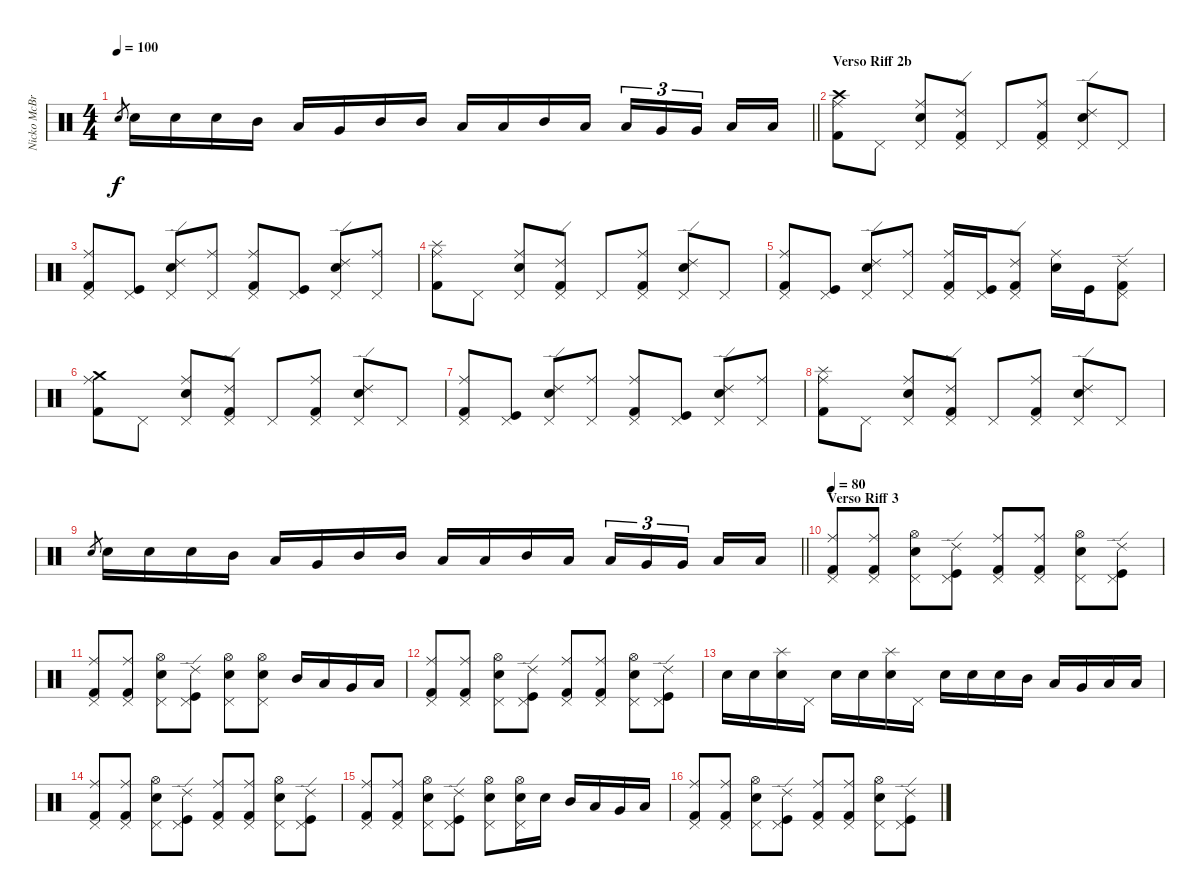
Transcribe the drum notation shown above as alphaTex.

\track ("Nicko McBrain" "Nicko McBr") {instrument percussion}
\staff {score}
\articulation defaults
\ts (4 4)
\tempo 100
\clef neutral
\barLineRight lightlight
\ks c "Snare (hit) 2".8{gr dy f} "Snare (hit) 2".16 "Snare (hit) 2".16 "Snare (hit) 2".16 "Mid Tom (hit)".16 "Low Tom (hit)".16 "Very Low Tom (hit)".16 "Mid Tom (hit)".16 "Mid Tom (hit)".16 "Low Tom (hit)".16 "Low Tom (hit)".16 "Mid Tom (hit)".16 "Low Tom (hit)".16 "Low Tom (hit)".16{tu (3 2)} "Very Low Tom (hit)".16{tu (3 2)} "Very Low Tom (hit)".16{tu (3 2) beam splitsecondary} "Low Floor Tom (hit)".16 "Low Floor Tom (hit)".16
|
\section ("" "Verso Riff 2b")
("Kick (hit) 2" "Ride (middle)" "Crash high (hit)").8 "Pedal Hi-Hat (hit)".8 ("Snare (hit) 2" "Pedal Hi-Hat (hit)" "Ride (middle)").8 ("Kick (hit) 2" "Pedal Hi-Hat (hit)" "Ride (edge) 2").8 "Pedal Hi-Hat (hit)".8 ("Kick (hit) 2" "Pedal Hi-Hat (hit)" "Ride (middle)").8 ("Snare (hit) 2" "Pedal Hi-Hat (hit)" "Ride (edge) 2").8 "Pedal Hi-Hat (hit)".8 |
("Kick (hit) 2" "Pedal Hi-Hat (hit)" "Ride (middle)").8 ("Kick (hit)" "Pedal Hi-Hat (hit)").8 ("Snare (hit) 2" "Pedal Hi-Hat (hit)" "Ride (edge) 2").8 ("Pedal Hi-Hat (hit)" "Ride (middle)").8 ("Kick (hit) 2" "Pedal Hi-Hat (hit)" "Ride (middle)").8 ("Kick (hit)" "Pedal Hi-Hat (hit)").8 ("Snare (hit) 2" "Pedal Hi-Hat (hit)" "Ride (edge) 2").8 ("Pedal Hi-Hat (hit)" "Ride (middle)").8 |
("Kick (hit) 2" "Ride (middle)" "Splash (hit)").8 "Pedal Hi-Hat (hit)".8 ("Snare (hit) 2" "Pedal Hi-Hat (hit)" "Ride (middle)").8 ("Kick (hit) 2" "Pedal Hi-Hat (hit)" "Ride (edge) 2").8 "Pedal Hi-Hat (hit)".8 ("Kick (hit) 2" "Pedal Hi-Hat (hit)" "Ride (middle)").8 ("Snare (hit) 2" "Pedal Hi-Hat (hit)" "Ride (edge) 2").8 "Pedal Hi-Hat (hit)".8 |
("Kick (hit) 2" "Pedal Hi-Hat (hit)" "Ride (middle)").8 ("Kick (hit)" "Pedal Hi-Hat (hit)").8 ("Snare (hit) 2" "Pedal Hi-Hat (hit)" "Ride (edge) 2").8 ("Pedal Hi-Hat (hit)" "Ride (middle)").8 ("Kick (hit) 2" "Pedal Hi-Hat (hit)" "Ride (middle)").16 ("Kick (hit)" "Pedal Hi-Hat (hit)").16 ("Kick (hit) 2" "Pedal Hi-Hat (hit)" "Ride (edge) 2").8 ("Snare (hit) 2" "Ride (middle)").16 "Kick (hit)".16 ("Kick (hit) 2" "Pedal Hi-Hat (hit)" "Ride (edge) 2").8 |
("Kick (hit) 2" "Ride (middle)" "Crash medium (hit)").8 "Pedal Hi-Hat (hit)".8 ("Snare (hit) 2" "Pedal Hi-Hat (hit)" "Ride (middle)").8 ("Kick (hit) 2" "Pedal Hi-Hat (hit)" "Ride (edge) 2").8 "Pedal Hi-Hat (hit)".8 ("Kick (hit) 2" "Pedal Hi-Hat (hit)" "Ride (middle)").8 ("Snare (hit) 2" "Pedal Hi-Hat (hit)" "Ride (edge) 2").8 "Pedal Hi-Hat (hit)".8 |
("Kick (hit) 2" "Pedal Hi-Hat (hit)" "Ride (middle)").8 ("Kick (hit)" "Pedal Hi-Hat (hit)").8 ("Snare (hit) 2" "Pedal Hi-Hat (hit)" "Ride (edge) 2").8 ("Pedal Hi-Hat (hit)" "Ride (middle)").8 ("Kick (hit) 2" "Pedal Hi-Hat (hit)" "Ride (middle)").8 ("Kick (hit)" "Pedal Hi-Hat (hit)").8 ("Snare (hit) 2" "Pedal Hi-Hat (hit)" "Ride (edge) 2").8 ("Pedal Hi-Hat (hit)" "Ride (middle)").8 |
("Kick (hit) 2" "Ride (middle)" "Splash (hit)").8 "Pedal Hi-Hat (hit)".8 ("Snare (hit) 2" "Pedal Hi-Hat (hit)" "Ride (middle)").8 ("Kick (hit) 2" "Pedal Hi-Hat (hit)" "Ride (edge) 2").8 "Pedal Hi-Hat (hit)".8 ("Kick (hit) 2" "Pedal Hi-Hat (hit)" "Ride (middle)").8 ("Snare (hit) 2" "Pedal Hi-Hat (hit)" "Ride (edge) 2").8 "Pedal Hi-Hat (hit)".8 |
\barLineRight lightlight "Snare (hit) 2".8{gr} "Snare (hit) 2".16 "Snare (hit) 2".16 "Snare (hit) 2".16 "Mid Tom (hit)".16 "Low Tom (hit)".16 "Very Low Tom (hit)".16 "Mid Tom (hit)".16 "Mid Tom (hit)".16 "Low Tom (hit)".16 "Low Tom (hit)".16 "Mid Tom (hit)".16 "Low Tom (hit)".16 "Low Tom (hit)".16{tu (3 2)} "Very Low Tom (hit)".16{tu (3 2)} "Very Low Tom (hit)".16{tu (3 2) beam splitsecondary} "Low Floor Tom (hit)".16 "Low Floor Tom (hit)".16
|
\section ("" "Verso Riff 3")
\tempo 80
("Kick (hit) 2" "Pedal Hi-Hat (hit)" "Ride (middle)").8 ("Kick (hit) 2" "Pedal Hi-Hat (hit)" "Ride (middle)").8 ("Snare (hit) 2" "Pedal Hi-Hat (hit)" "Hi-Hat (open)").8 ("Kick (hit)" "Pedal Hi-Hat (hit)" "Ride (edge) 2").8 ("Kick (hit) 2" "Pedal Hi-Hat (hit)" "Ride (middle)").8 ("Kick (hit) 2" "Pedal Hi-Hat (hit)" "Ride (middle)").8 ("Snare (hit) 2" "Pedal Hi-Hat (hit)" "Hi-Hat (open)").8 ("Kick (hit)" "Pedal Hi-Hat (hit)" "Ride (edge) 2").8 |
("Kick (hit) 2" "Pedal Hi-Hat (hit)" "Ride (middle)").8 ("Kick (hit) 2" "Pedal Hi-Hat (hit)" "Ride (middle)").8 ("Snare (hit) 2" "Pedal Hi-Hat (hit)" "Hi-Hat (open)").8 ("Kick (hit)" "Pedal Hi-Hat (hit)" "Ride (edge) 2").8 ("Snare (hit) 2" "Pedal Hi-Hat (hit)" "Hi-Hat (open)").8 ("Snare (hit) 2" "Pedal Hi-Hat (hit)" "Hi-Hat (open)").8 "Mid Tom (hit)".16 "Low Tom (hit)".16 "Very Low Tom (hit)".16 "Low Floor Tom (hit)".16 |
("Kick (hit) 2" "Pedal Hi-Hat (hit)" "Ride (middle)").8 ("Kick (hit) 2" "Pedal Hi-Hat (hit)" "Ride (middle)").8 ("Snare (hit) 2" "Pedal Hi-Hat (hit)" "Hi-Hat (open)").8 ("Kick (hit)" "Pedal Hi-Hat (hit)" "Ride (edge) 2").8 ("Kick (hit) 2" "Pedal Hi-Hat (hit)" "Ride (middle)").8 ("Kick (hit) 2" "Pedal Hi-Hat (hit)" "Ride (middle)").8 ("Snare (hit) 2" "Pedal Hi-Hat (hit)" "Hi-Hat (open)").8 ("Kick (hit)" "Pedal Hi-Hat (hit)" "Ride (edge) 2").8 |
"Snare (hit) 2".16 "Snare (hit) 2".16 ("Snare (hit) 2" "Splash (hit)").16 "Pedal Hi-Hat (hit)".16 "Snare (hit) 2".16 "Snare (hit) 2".16 ("Snare (hit) 2" "Splash (hit)").16 "Pedal Hi-Hat (hit)".16 "Snare (hit) 2".16 "Snare (hit) 2".16 "Snare (hit) 2".16 "Mid Tom (hit)".16 "Low Tom (hit)".16 "Very Low Tom (hit)".16 "Low Floor Tom (hit)".16 "Low Floor Tom (hit)".16 |
("Kick (hit) 2" "Pedal Hi-Hat (hit)" "Ride (middle)").8 ("Kick (hit) 2" "Pedal Hi-Hat (hit)" "Ride (middle)").8 ("Snare (hit) 2" "Pedal Hi-Hat (hit)" "Hi-Hat (open)").8 ("Kick (hit)" "Pedal Hi-Hat (hit)" "Ride (edge) 2").8 ("Kick (hit) 2" "Pedal Hi-Hat (hit)" "Ride (middle)").8 ("Kick (hit) 2" "Pedal Hi-Hat (hit)" "Ride (middle)").8 ("Snare (hit) 2" "Pedal Hi-Hat (hit)" "Hi-Hat (open)").8 ("Kick (hit)" "Pedal Hi-Hat (hit)" "Ride (edge) 2").8 |
("Kick (hit) 2" "Pedal Hi-Hat (hit)" "Ride (middle)").8 ("Kick (hit) 2" "Pedal Hi-Hat (hit)" "Ride (middle)").8 ("Snare (hit) 2" "Pedal Hi-Hat (hit)" "Hi-Hat (open)").8 ("Kick (hit)" "Pedal Hi-Hat (hit)" "Ride (edge) 2").8 ("Snare (hit) 2" "Pedal Hi-Hat (hit)" "Hi-Hat (open)").8 ("Snare (hit) 2" "Pedal Hi-Hat (hit)" "Hi-Hat (open)").16 "Snare (hit) 2".16 "Mid Tom (hit)".16 "Low Tom (hit)".16 "Very Low Tom (hit)".16 "Low Floor Tom (hit)".16 |
("Kick (hit) 2" "Pedal Hi-Hat (hit)" "Ride (middle)").8 ("Kick (hit) 2" "Pedal Hi-Hat (hit)" "Ride (middle)").8 ("Snare (hit) 2" "Pedal Hi-Hat (hit)" "Hi-Hat (open)").8 ("Kick (hit)" "Pedal Hi-Hat (hit)" "Ride (edge) 2").8 ("Kick (hit) 2" "Pedal Hi-Hat (hit)" "Ride (middle)").8 ("Kick (hit) 2" "Pedal Hi-Hat (hit)" "Ride (middle)").8 ("Snare (hit) 2" "Pedal Hi-Hat (hit)" "Hi-Hat (open)").8 ("Kick (hit)" "Pedal Hi-Hat (hit)" "Ride (edge) 2").8
